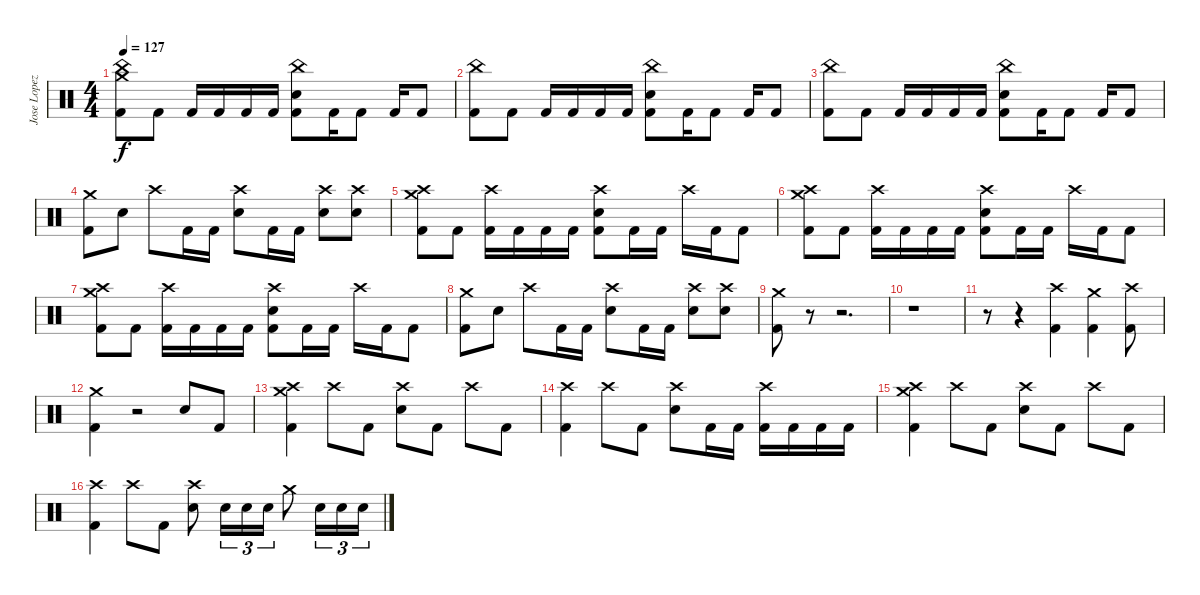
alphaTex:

\track ("Jose Lopez" "Jose Lopez") {instrument percussion}
\staff {score}
\articulation defaults
\ts (4 4)
\tempo 127
\clef neutral
\ks c
("Crash medium (hit)" "China (hit)" "Kick (hit) 2").8{dy f} "Kick (hit) 2".8 "Kick (hit) 2".16 "Kick (hit) 2".16 "Kick (hit) 2".16 "Kick (hit) 2".16 ("China (hit)" "Electric Snare (hit)" "Kick (hit) 2").8 "Kick (hit) 2".16 "Kick (hit) 2".8 "Kick (hit) 2".16 "Kick (hit) 2".8 |
("China (hit)" "Kick (hit) 2").8 "Kick (hit) 2".8 "Kick (hit) 2".16 "Kick (hit) 2".16 "Kick (hit) 2".16 "Kick (hit) 2".16 ("China (hit)" "Electric Snare (hit)" "Kick (hit) 2").8 "Kick (hit) 2".16 "Kick (hit) 2".8 "Kick (hit) 2".16 "Kick (hit) 2".8 |
("China (hit)" "Kick (hit) 2").8 "Kick (hit) 2".8 "Kick (hit) 2".16 "Kick (hit) 2".16 "Kick (hit) 2".16 "Kick (hit) 2".16 ("China (hit)" "Electric Snare (hit)" "Kick (hit) 2").8 "Kick (hit) 2".16 "Kick (hit) 2".8 "Kick (hit) 2".16 "Kick (hit) 2".8 |
("Crash medium (hit)" "Kick (hit) 2").8 "Electric Snare (hit)".8 "Crash high (hit)".8 "Kick (hit) 2".16 "Kick (hit) 2".16 ("Crash high (hit)" "Electric Snare (hit)").8 "Kick (hit) 2".16 "Kick (hit) 2".16 ("Crash high (hit)" "Electric Snare (hit)").8 ("Crash high (hit)" "Electric Snare (hit)").8 |
("Crash high (hit)" "Crash medium (hit)" "Kick (hit) 2").8 "Kick (hit) 2".8 ("Crash high (hit)" "Kick (hit) 2").16 "Kick (hit) 2".16 "Kick (hit) 2".16 "Kick (hit) 2".16 ("Crash high (hit)" "Electric Snare (hit)" "Kick (hit) 2").8 "Kick (hit) 2".16 "Kick (hit) 2".16 "Crash high (hit)".16 "Kick (hit) 2".16 "Kick (hit) 2".8 |
("Crash high (hit)" "Crash medium (hit)" "Kick (hit) 2").8 "Kick (hit) 2".8 ("Crash high (hit)" "Kick (hit) 2").16 "Kick (hit) 2".16 "Kick (hit) 2".16 "Kick (hit) 2".16 ("Crash high (hit)" "Electric Snare (hit)" "Kick (hit) 2").8 "Kick (hit) 2".16 "Kick (hit) 2".16 "Crash high (hit)".16 "Kick (hit) 2".16 "Kick (hit) 2".8 |
("Crash high (hit)" "Crash medium (hit)" "Kick (hit) 2").8 "Kick (hit) 2".8 ("Crash high (hit)" "Kick (hit) 2").16 "Kick (hit) 2".16 "Kick (hit) 2".16 "Kick (hit) 2".16 ("Crash high (hit)" "Electric Snare (hit)" "Kick (hit) 2").8 "Kick (hit) 2".16 "Kick (hit) 2".16 "Crash high (hit)".16 "Kick (hit) 2".16 "Kick (hit) 2".8 |
("Crash medium (hit)" "Kick (hit) 2").8 "Electric Snare (hit)".8 "Crash high (hit)".8 "Kick (hit) 2".16 "Kick (hit) 2".16 ("Crash high (hit)" "Electric Snare (hit)").8 "Kick (hit) 2".16 "Kick (hit) 2".16 ("Crash high (hit)" "Electric Snare (hit)").8 ("Crash high (hit)" "Electric Snare (hit)").8 |
("Crash medium (hit)" "Kick (hit) 2").8 r.8 r.2{d} |
r.1 |
r.8 r.4 ("Crash high (hit)" "Kick (hit) 2").4 ("Crash medium (hit)" "Kick (hit) 2").4 ("Crash high (hit)" "Kick (hit) 2").8 |
("Crash medium (hit)" "Kick (hit) 2").4 r.2 "Electric Snare (hit)".8 "Kick (hit) 2".8 |
("Crash high (hit)" "Crash medium (hit)" "Kick (hit) 2").4 "Crash high (hit)".8 "Kick (hit) 2".8 ("Crash high (hit)" "Electric Snare (hit)").8 "Kick (hit) 2".8 "Crash high (hit)".8 "Kick (hit) 2".8 |
("Crash high (hit)" "Kick (hit) 2").4 "Crash high (hit)".8 "Kick (hit) 2".8 ("Crash high (hit)" "Electric Snare (hit)").8 "Kick (hit) 2".16 "Kick (hit) 2".16 ("Crash high (hit)" "Kick (hit) 2").16 "Kick (hit) 2".16 "Kick (hit) 2".16 "Kick (hit) 2".16 |
("Crash high (hit)" "Crash medium (hit)" "Kick (hit) 2").4 "Crash high (hit)".8 "Kick (hit) 2".8 ("Crash high (hit)" "Electric Snare (hit)").8 "Kick (hit) 2".8 "Crash high (hit)".8 "Kick (hit) 2".8 |
("Crash high (hit)" "Kick (hit) 2").4 "Crash high (hit)".8 "Kick (hit) 2".8 ("Crash high (hit)" "Electric Snare (hit)").8 "Electric Snare (hit)".16{tu (3 2)} "Electric Snare (hit)".16{tu (3 2)} "Electric Snare (hit)".16{tu (3 2)} "Crash medium (hit)".8 "Electric Snare (hit)".16{tu (3 2)} "Electric Snare (hit)".16{tu (3 2)} "Electric Snare (hit)".16{tu (3 2)}
